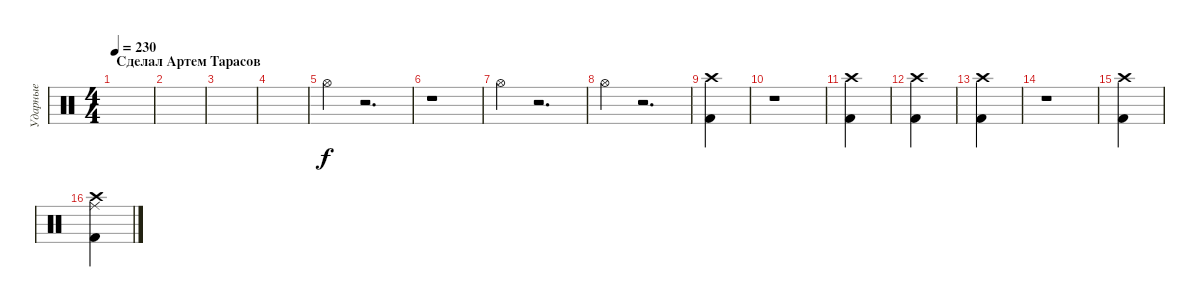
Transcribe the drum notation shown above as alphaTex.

\track ("Ударные" "Ударные") {instrument percussion}
\staff {score}
\articulation defaults
\ts (4 4)
\section ("" "Сделал Артем Тарасов")
\tempo 230
\clef neutral
\ks c
|
|
|
|
"Hi-Hat (open)".4 r.2{d} |
r.1 |
"Hi-Hat (open)".4 r.2{d} |
"Hi-Hat (open)".4 r.2{d} |
("Crash high (hit)" "Kick (hit) 2").4 |
r.1 |
("Crash high (hit)" "Kick (hit) 2").4 |
("Crash high (hit)" "Kick (hit) 2").4 |
("Crash high (hit)" "Kick (hit) 2").4 |
r.1 |
("Crash high (hit)" "Kick (hit) 2").4 |
("Crash high (hit)" "Kick (hit) 2" "Ride (middle)").4
